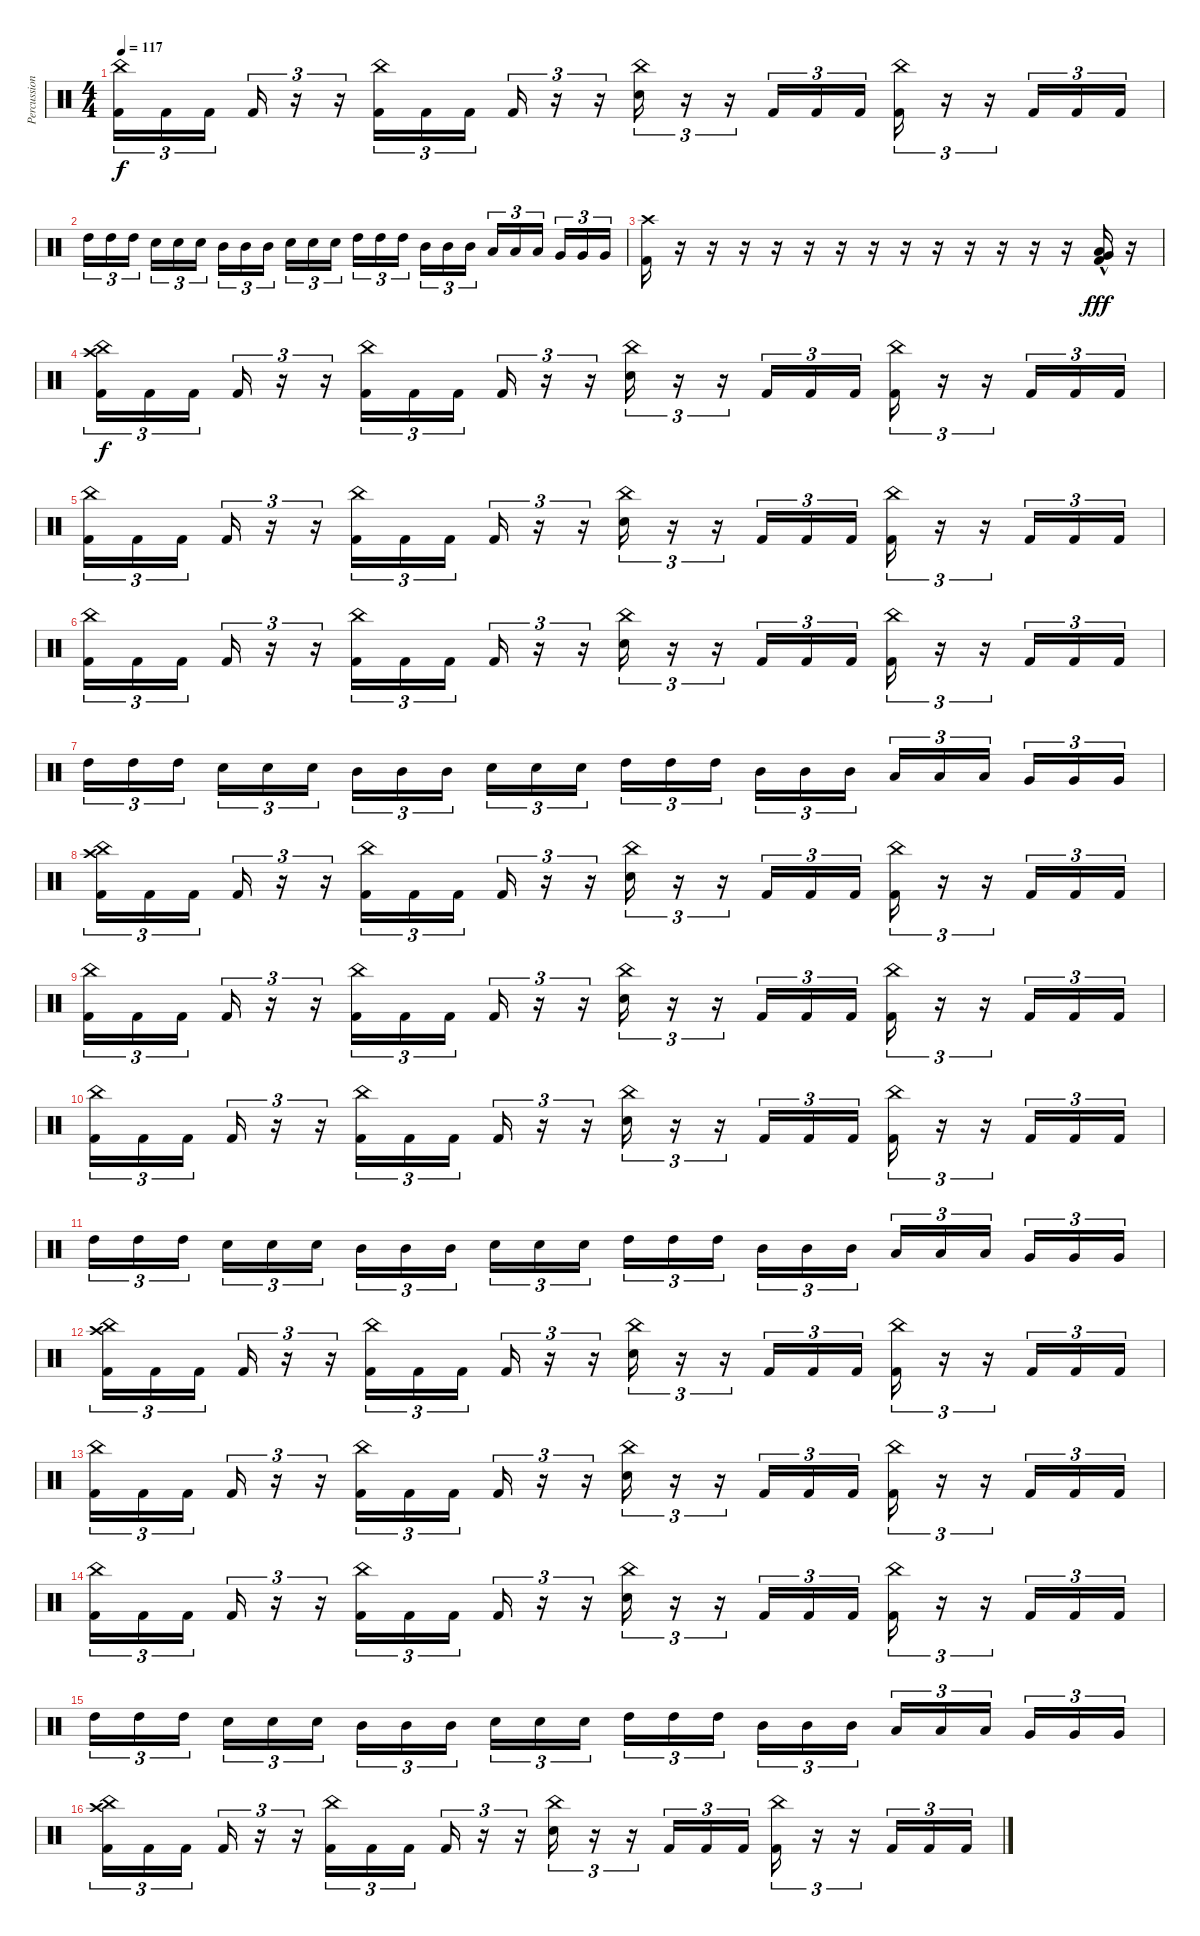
\track ("Percussion" "Percussion") {instrument percussion}
\staff {score}
\articulation defaults
\ts (4 4)
\tempo 117
\clef neutral
\ks c
("China (hit)" "Kick (hit) 2").16{tu (3 2) dy f} "Kick (hit) 2".16{tu (3 2)} "Kick (hit) 2".16{tu (3 2) beam splitsecondary} "Kick (hit) 2".16{tu (3 2)} r.16{tu (3 2)} r.16{tu (3 2)} ("China (hit)" "Kick (hit) 2").16{tu (3 2)} "Kick (hit) 2".16{tu (3 2)} "Kick (hit) 2".16{tu (3 2) beam splitsecondary} "Kick (hit) 2".16{tu (3 2)} r.16{tu (3 2)} r.16{tu (3 2)} ("China (hit)" "Electric Snare (hit)").16{tu (3 2)} r.16{tu (3 2)} r.16{tu (3 2)} "Kick (hit) 2".16{tu (3 2)} "Kick (hit) 2".16{tu (3 2)} "Kick (hit) 2".16{tu (3 2)} ("China (hit)" "Kick (hit) 2").16{tu (3 2)} r.16{tu (3 2)} r.16{tu (3 2)} "Kick (hit) 2".16{tu (3 2)} "Kick (hit) 2".16{tu (3 2)} "Kick (hit) 2".16{tu (3 2)} |
"High Tom (hit)".16{tu (3 2)} "High Tom (hit)".16{tu (3 2)} "High Tom (hit)".16{tu (3 2) beam splitsecondary} "Electric Snare (hit)".16{tu (3 2)} "Electric Snare (hit)".16{tu (3 2)} "Electric Snare (hit)".16{tu (3 2)} "Mid Tom (hit)".16{tu (3 2)} "Mid Tom (hit)".16{tu (3 2)} "Mid Tom (hit)".16{tu (3 2) beam splitsecondary} "Electric Snare (hit)".16{tu (3 2)} "Electric Snare (hit)".16{tu (3 2)} "Electric Snare (hit)".16{tu (3 2)} "High Tom (hit)".16{tu (3 2)} "High Tom (hit)".16{tu (3 2)} "High Tom (hit)".16{tu (3 2) beam splitsecondary} "Mid Tom (hit)".16{tu (3 2)} "Mid Tom (hit)".16{tu (3 2)} "Mid Tom (hit)".16{tu (3 2)} "Low Tom (hit)".16{tu (3 2)} "Low Tom (hit)".16{tu (3 2)} "Low Tom (hit)".16{tu (3 2) beam splitsecondary} "Very Low Tom (hit)".16{tu (3 2)} "Very Low Tom (hit)".16{tu (3 2)} "Very Low Tom (hit)".16{tu (3 2)} |
("Crash high (hit)" "Kick (hit) 2").16 r.16{volume 0} r.16 r.16 r.16 r.16 r.16 r.16 r.16 r.16 r.16 r.16 r.16 r.16 ("Low Tom (hit)"{hac} "Very Low Tom (hit)"{hac} "Kick (hit) 2").16{dy fff volume 13} r.16 |
("Crash high (hit)" "China (hit)" "Kick (hit) 2").16{tu (3 2) dy f} "Kick (hit) 2".16{tu (3 2)} "Kick (hit) 2".16{tu (3 2) beam splitsecondary} "Kick (hit) 2".16{tu (3 2)} r.16{tu (3 2)} r.16{tu (3 2)} ("China (hit)" "Kick (hit) 2").16{tu (3 2)} "Kick (hit) 2".16{tu (3 2)} "Kick (hit) 2".16{tu (3 2) beam splitsecondary} "Kick (hit) 2".16{tu (3 2)} r.16{tu (3 2)} r.16{tu (3 2)} ("China (hit)" "Electric Snare (hit)").16{tu (3 2)} r.16{tu (3 2)} r.16{tu (3 2)} "Kick (hit) 2".16{tu (3 2)} "Kick (hit) 2".16{tu (3 2)} "Kick (hit) 2".16{tu (3 2)} ("China (hit)" "Kick (hit) 2").16{tu (3 2)} r.16{tu (3 2)} r.16{tu (3 2)} "Kick (hit) 2".16{tu (3 2)} "Kick (hit) 2".16{tu (3 2)} "Kick (hit) 2".16{tu (3 2)} |
("China (hit)" "Kick (hit) 2").16{tu (3 2)} "Kick (hit) 2".16{tu (3 2)} "Kick (hit) 2".16{tu (3 2) beam splitsecondary} "Kick (hit) 2".16{tu (3 2)} r.16{tu (3 2)} r.16{tu (3 2)} ("China (hit)" "Kick (hit) 2").16{tu (3 2)} "Kick (hit) 2".16{tu (3 2)} "Kick (hit) 2".16{tu (3 2) beam splitsecondary} "Kick (hit) 2".16{tu (3 2)} r.16{tu (3 2)} r.16{tu (3 2)} ("China (hit)" "Electric Snare (hit)").16{tu (3 2)} r.16{tu (3 2)} r.16{tu (3 2)} "Kick (hit) 2".16{tu (3 2)} "Kick (hit) 2".16{tu (3 2)} "Kick (hit) 2".16{tu (3 2)} ("China (hit)" "Kick (hit) 2").16{tu (3 2)} r.16{tu (3 2)} r.16{tu (3 2)} "Kick (hit) 2".16{tu (3 2)} "Kick (hit) 2".16{tu (3 2)} "Kick (hit) 2".16{tu (3 2)} |
("China (hit)" "Kick (hit) 2").16{tu (3 2)} "Kick (hit) 2".16{tu (3 2)} "Kick (hit) 2".16{tu (3 2) beam splitsecondary} "Kick (hit) 2".16{tu (3 2)} r.16{tu (3 2)} r.16{tu (3 2)} ("China (hit)" "Kick (hit) 2").16{tu (3 2)} "Kick (hit) 2".16{tu (3 2)} "Kick (hit) 2".16{tu (3 2) beam splitsecondary} "Kick (hit) 2".16{tu (3 2)} r.16{tu (3 2)} r.16{tu (3 2)} ("China (hit)" "Electric Snare (hit)").16{tu (3 2)} r.16{tu (3 2)} r.16{tu (3 2)} "Kick (hit) 2".16{tu (3 2)} "Kick (hit) 2".16{tu (3 2)} "Kick (hit) 2".16{tu (3 2)} ("China (hit)" "Kick (hit) 2").16{tu (3 2)} r.16{tu (3 2)} r.16{tu (3 2)} "Kick (hit) 2".16{tu (3 2)} "Kick (hit) 2".16{tu (3 2)} "Kick (hit) 2".16{tu (3 2)} |
"High Tom (hit)".16{tu (3 2)} "High Tom (hit)".16{tu (3 2)} "High Tom (hit)".16{tu (3 2) beam splitsecondary} "Electric Snare (hit)".16{tu (3 2)} "Electric Snare (hit)".16{tu (3 2)} "Electric Snare (hit)".16{tu (3 2)} "Mid Tom (hit)".16{tu (3 2)} "Mid Tom (hit)".16{tu (3 2)} "Mid Tom (hit)".16{tu (3 2) beam splitsecondary} "Electric Snare (hit)".16{tu (3 2)} "Electric Snare (hit)".16{tu (3 2)} "Electric Snare (hit)".16{tu (3 2)} "High Tom (hit)".16{tu (3 2)} "High Tom (hit)".16{tu (3 2)} "High Tom (hit)".16{tu (3 2) beam splitsecondary} "Mid Tom (hit)".16{tu (3 2)} "Mid Tom (hit)".16{tu (3 2)} "Mid Tom (hit)".16{tu (3 2)} "Low Tom (hit)".16{tu (3 2)} "Low Tom (hit)".16{tu (3 2)} "Low Tom (hit)".16{tu (3 2) beam splitsecondary} "Very Low Tom (hit)".16{tu (3 2)} "Very Low Tom (hit)".16{tu (3 2)} "Very Low Tom (hit)".16{tu (3 2)} |
("Crash high (hit)" "China (hit)" "Kick (hit) 2").16{tu (3 2)} "Kick (hit) 2".16{tu (3 2)} "Kick (hit) 2".16{tu (3 2) beam splitsecondary} "Kick (hit) 2".16{tu (3 2)} r.16{tu (3 2)} r.16{tu (3 2)} ("China (hit)" "Kick (hit) 2").16{tu (3 2)} "Kick (hit) 2".16{tu (3 2)} "Kick (hit) 2".16{tu (3 2) beam splitsecondary} "Kick (hit) 2".16{tu (3 2)} r.16{tu (3 2)} r.16{tu (3 2)} ("China (hit)" "Electric Snare (hit)").16{tu (3 2)} r.16{tu (3 2)} r.16{tu (3 2)} "Kick (hit) 2".16{tu (3 2)} "Kick (hit) 2".16{tu (3 2)} "Kick (hit) 2".16{tu (3 2)} ("China (hit)" "Kick (hit) 2").16{tu (3 2)} r.16{tu (3 2)} r.16{tu (3 2)} "Kick (hit) 2".16{tu (3 2)} "Kick (hit) 2".16{tu (3 2)} "Kick (hit) 2".16{tu (3 2)} |
("China (hit)" "Kick (hit) 2").16{tu (3 2)} "Kick (hit) 2".16{tu (3 2)} "Kick (hit) 2".16{tu (3 2) beam splitsecondary} "Kick (hit) 2".16{tu (3 2)} r.16{tu (3 2)} r.16{tu (3 2)} ("China (hit)" "Kick (hit) 2").16{tu (3 2)} "Kick (hit) 2".16{tu (3 2)} "Kick (hit) 2".16{tu (3 2) beam splitsecondary} "Kick (hit) 2".16{tu (3 2)} r.16{tu (3 2)} r.16{tu (3 2)} ("China (hit)" "Electric Snare (hit)").16{tu (3 2)} r.16{tu (3 2)} r.16{tu (3 2)} "Kick (hit) 2".16{tu (3 2)} "Kick (hit) 2".16{tu (3 2)} "Kick (hit) 2".16{tu (3 2)} ("China (hit)" "Kick (hit) 2").16{tu (3 2)} r.16{tu (3 2)} r.16{tu (3 2)} "Kick (hit) 2".16{tu (3 2)} "Kick (hit) 2".16{tu (3 2)} "Kick (hit) 2".16{tu (3 2)} |
("China (hit)" "Kick (hit) 2").16{tu (3 2)} "Kick (hit) 2".16{tu (3 2)} "Kick (hit) 2".16{tu (3 2) beam splitsecondary} "Kick (hit) 2".16{tu (3 2)} r.16{tu (3 2)} r.16{tu (3 2)} ("China (hit)" "Kick (hit) 2").16{tu (3 2)} "Kick (hit) 2".16{tu (3 2)} "Kick (hit) 2".16{tu (3 2) beam splitsecondary} "Kick (hit) 2".16{tu (3 2)} r.16{tu (3 2)} r.16{tu (3 2)} ("China (hit)" "Electric Snare (hit)").16{tu (3 2)} r.16{tu (3 2)} r.16{tu (3 2)} "Kick (hit) 2".16{tu (3 2)} "Kick (hit) 2".16{tu (3 2)} "Kick (hit) 2".16{tu (3 2)} ("China (hit)" "Kick (hit) 2").16{tu (3 2)} r.16{tu (3 2)} r.16{tu (3 2)} "Kick (hit) 2".16{tu (3 2)} "Kick (hit) 2".16{tu (3 2)} "Kick (hit) 2".16{tu (3 2)} |
"High Tom (hit)".16{tu (3 2)} "High Tom (hit)".16{tu (3 2)} "High Tom (hit)".16{tu (3 2) beam splitsecondary} "Electric Snare (hit)".16{tu (3 2)} "Electric Snare (hit)".16{tu (3 2)} "Electric Snare (hit)".16{tu (3 2)} "Mid Tom (hit)".16{tu (3 2)} "Mid Tom (hit)".16{tu (3 2)} "Mid Tom (hit)".16{tu (3 2) beam splitsecondary} "Electric Snare (hit)".16{tu (3 2)} "Electric Snare (hit)".16{tu (3 2)} "Electric Snare (hit)".16{tu (3 2)} "High Tom (hit)".16{tu (3 2)} "High Tom (hit)".16{tu (3 2)} "High Tom (hit)".16{tu (3 2) beam splitsecondary} "Mid Tom (hit)".16{tu (3 2)} "Mid Tom (hit)".16{tu (3 2)} "Mid Tom (hit)".16{tu (3 2)} "Low Tom (hit)".16{tu (3 2)} "Low Tom (hit)".16{tu (3 2)} "Low Tom (hit)".16{tu (3 2) beam splitsecondary} "Very Low Tom (hit)".16{tu (3 2)} "Very Low Tom (hit)".16{tu (3 2)} "Very Low Tom (hit)".16{tu (3 2)} |
("Crash high (hit)" "China (hit)" "Kick (hit) 2").16{tu (3 2)} "Kick (hit) 2".16{tu (3 2)} "Kick (hit) 2".16{tu (3 2) beam splitsecondary} "Kick (hit) 2".16{tu (3 2)} r.16{tu (3 2)} r.16{tu (3 2)} ("China (hit)" "Kick (hit) 2").16{tu (3 2)} "Kick (hit) 2".16{tu (3 2)} "Kick (hit) 2".16{tu (3 2) beam splitsecondary} "Kick (hit) 2".16{tu (3 2)} r.16{tu (3 2)} r.16{tu (3 2)} ("China (hit)" "Electric Snare (hit)").16{tu (3 2)} r.16{tu (3 2)} r.16{tu (3 2)} "Kick (hit) 2".16{tu (3 2)} "Kick (hit) 2".16{tu (3 2)} "Kick (hit) 2".16{tu (3 2)} ("China (hit)" "Kick (hit) 2").16{tu (3 2)} r.16{tu (3 2)} r.16{tu (3 2)} "Kick (hit) 2".16{tu (3 2)} "Kick (hit) 2".16{tu (3 2)} "Kick (hit) 2".16{tu (3 2)} |
("China (hit)" "Kick (hit) 2").16{tu (3 2)} "Kick (hit) 2".16{tu (3 2)} "Kick (hit) 2".16{tu (3 2) beam splitsecondary} "Kick (hit) 2".16{tu (3 2)} r.16{tu (3 2)} r.16{tu (3 2)} ("China (hit)" "Kick (hit) 2").16{tu (3 2)} "Kick (hit) 2".16{tu (3 2)} "Kick (hit) 2".16{tu (3 2) beam splitsecondary} "Kick (hit) 2".16{tu (3 2)} r.16{tu (3 2)} r.16{tu (3 2)} ("China (hit)" "Electric Snare (hit)").16{tu (3 2)} r.16{tu (3 2)} r.16{tu (3 2)} "Kick (hit) 2".16{tu (3 2)} "Kick (hit) 2".16{tu (3 2)} "Kick (hit) 2".16{tu (3 2)} ("China (hit)" "Kick (hit) 2").16{tu (3 2)} r.16{tu (3 2)} r.16{tu (3 2)} "Kick (hit) 2".16{tu (3 2)} "Kick (hit) 2".16{tu (3 2)} "Kick (hit) 2".16{tu (3 2)} |
("China (hit)" "Kick (hit) 2").16{tu (3 2)} "Kick (hit) 2".16{tu (3 2)} "Kick (hit) 2".16{tu (3 2) beam splitsecondary} "Kick (hit) 2".16{tu (3 2)} r.16{tu (3 2)} r.16{tu (3 2)} ("China (hit)" "Kick (hit) 2").16{tu (3 2)} "Kick (hit) 2".16{tu (3 2)} "Kick (hit) 2".16{tu (3 2) beam splitsecondary} "Kick (hit) 2".16{tu (3 2)} r.16{tu (3 2)} r.16{tu (3 2)} ("China (hit)" "Electric Snare (hit)").16{tu (3 2)} r.16{tu (3 2)} r.16{tu (3 2)} "Kick (hit) 2".16{tu (3 2)} "Kick (hit) 2".16{tu (3 2)} "Kick (hit) 2".16{tu (3 2)} ("China (hit)" "Kick (hit) 2").16{tu (3 2)} r.16{tu (3 2)} r.16{tu (3 2)} "Kick (hit) 2".16{tu (3 2)} "Kick (hit) 2".16{tu (3 2)} "Kick (hit) 2".16{tu (3 2)} |
"High Tom (hit)".16{tu (3 2)} "High Tom (hit)".16{tu (3 2)} "High Tom (hit)".16{tu (3 2) beam splitsecondary} "Electric Snare (hit)".16{tu (3 2)} "Electric Snare (hit)".16{tu (3 2)} "Electric Snare (hit)".16{tu (3 2)} "Mid Tom (hit)".16{tu (3 2)} "Mid Tom (hit)".16{tu (3 2)} "Mid Tom (hit)".16{tu (3 2) beam splitsecondary} "Electric Snare (hit)".16{tu (3 2)} "Electric Snare (hit)".16{tu (3 2)} "Electric Snare (hit)".16{tu (3 2)} "High Tom (hit)".16{tu (3 2)} "High Tom (hit)".16{tu (3 2)} "High Tom (hit)".16{tu (3 2) beam splitsecondary} "Mid Tom (hit)".16{tu (3 2)} "Mid Tom (hit)".16{tu (3 2)} "Mid Tom (hit)".16{tu (3 2)} "Low Tom (hit)".16{tu (3 2)} "Low Tom (hit)".16{tu (3 2)} "Low Tom (hit)".16{tu (3 2) beam splitsecondary} "Very Low Tom (hit)".16{tu (3 2)} "Very Low Tom (hit)".16{tu (3 2)} "Very Low Tom (hit)".16{tu (3 2)} |
("Crash high (hit)" "China (hit)" "Kick (hit) 2").16{tu (3 2)} "Kick (hit) 2".16{tu (3 2)} "Kick (hit) 2".16{tu (3 2) beam splitsecondary} "Kick (hit) 2".16{tu (3 2)} r.16{tu (3 2)} r.16{tu (3 2)} ("China (hit)" "Kick (hit) 2").16{tu (3 2)} "Kick (hit) 2".16{tu (3 2)} "Kick (hit) 2".16{tu (3 2) beam splitsecondary} "Kick (hit) 2".16{tu (3 2)} r.16{tu (3 2)} r.16{tu (3 2)} ("China (hit)" "Electric Snare (hit)").16{tu (3 2)} r.16{tu (3 2)} r.16{tu (3 2)} "Kick (hit) 2".16{tu (3 2)} "Kick (hit) 2".16{tu (3 2)} "Kick (hit) 2".16{tu (3 2)} ("China (hit)" "Kick (hit) 2").16{tu (3 2)} r.16{tu (3 2)} r.16{tu (3 2)} "Kick (hit) 2".16{tu (3 2)} "Kick (hit) 2".16{tu (3 2)} "Kick (hit) 2".16{tu (3 2)}
